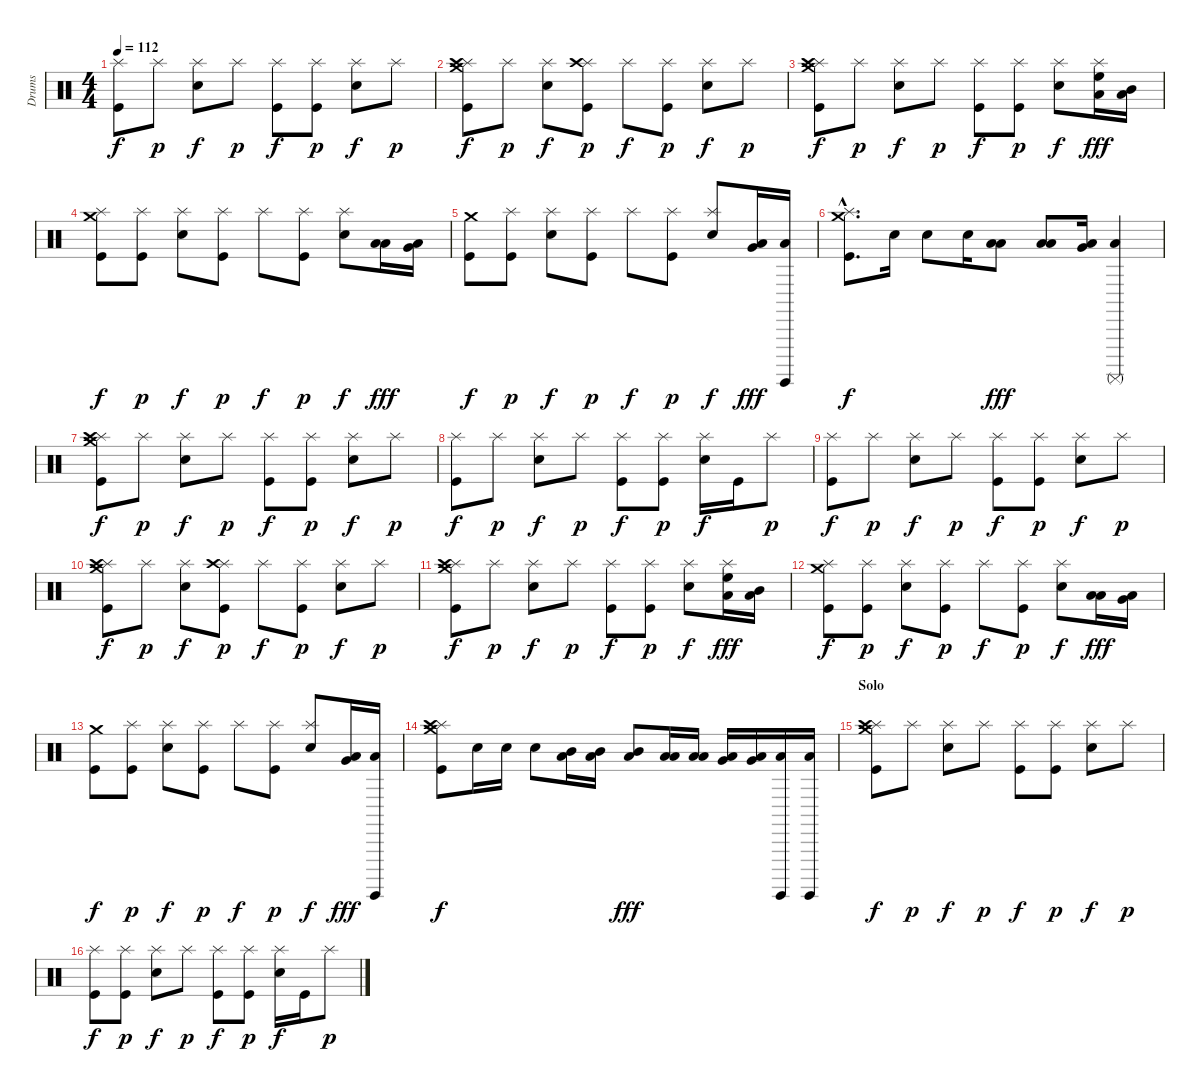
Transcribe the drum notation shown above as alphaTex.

\track ("Drums" "Drums") {instrument percussion}
\staff {score}
\articulation defaults
\ts (4 4)
\tempo 112
\clef neutral
\ks c
("Splash (hit)" "Kick (hit)").8{dy f} "Splash (hit)".8{dy p} ("Splash (hit)" "Electric Snare (hit)").8{dy f} "Splash (hit)".8{dy p} ("Splash (hit)" "Kick (hit)").8{dy f} ("Splash (hit)" "Kick (hit)").8{dy p} ("Splash (hit)" "Electric Snare (hit)").8{dy f} "Splash (hit)".8{dy p} |
("Crash medium (hit)" "Splash (hit)" "Crash high (hit)" "Kick (hit)").8{dy f} "Splash (hit)".8{dy p} ("Splash (hit)" "Electric Snare (hit)").8{dy f} ("Splash (hit)" "Crash high (hit)" "Kick (hit)").8{dy p} "Splash (hit)".8{dy f} ("Splash (hit)" "Kick (hit)").8{dy p} ("Splash (hit)" "Electric Snare (hit)").8{dy f} "Splash (hit)".8{dy p} |
("Crash medium (hit)" "Splash (hit)" "Crash high (hit)" "Kick (hit)").8{dy f} "Splash (hit)".8{dy p} ("Splash (hit)" "Electric Snare (hit)").8{dy f} "Splash (hit)".8{dy p} ("Splash (hit)" "Kick (hit)").8{dy f} ("Splash (hit)" "Kick (hit)").8{dy p} ("Splash (hit)" "Electric Snare (hit)").8{dy f} ("Splash (hit)" "Low Floor Tom (hit)" "High Floor Tom (hit)").16{dy fff} ("Low Floor Tom (hit)" "Mid Tom (hit)").16 |
("Crash medium (hit)" "Splash (hit)" "Kick (hit)").8{dy f} ("Splash (hit)" "Kick (hit)").8{dy p} ("Splash (hit)" "Electric Snare (hit)").8{dy f} ("Splash (hit)" "Kick (hit)").8{dy p} "Splash (hit)".8{dy f} ("Splash (hit)" "Kick (hit)").8{dy p} ("Splash (hit)" "Electric Snare (hit)").8{dy f} ("Low Floor Tom (hit)" "Low Tom (hit)").16{dy fff} ("Low Floor Tom (hit)" "Very Low Tom (hit)").16 |
("Crash medium (hit)" "Kick (hit)").8{dy f} ("Splash (hit)" "Kick (hit)").8{dy p} ("Splash (hit)" "Electric Snare (hit)").8{dy f} ("Splash (hit)" "Kick (hit)").8{dy p} "Splash (hit)".8{dy f} ("Splash (hit)" "Kick (hit)").8{dy p} ("Splash (hit)" "Electric Snare (hit)").8{dy f} ("Low Floor Tom (hit)" "Very Low Tom (hit)").16{dy fff} ("Surdo (hit)" "Low Floor Tom (hit)").16 |
("Crash medium (hit)"{hac} "Splash (hit)"{hac} "Kick (hit)"{hac}).8{d dy f} "Electric Snare (hit)".16 "Electric Snare (hit)".8 "Electric Snare (hit)".16 ("Low Floor Tom (hit)" "Low Tom (hit)").8{dy fff} ("Low Floor Tom (hit)" "Low Tom (hit)").8 ("Low Floor Tom (hit)" "Very Low Tom (hit)").16 ("Surdo (mute)" "Low Floor Tom (hit)").4 |
("Crash medium (hit)" "Splash (hit)" "Crash high (hit)" "Kick (hit)").8{dy f} "Splash (hit)".8{dy p} ("Splash (hit)" "Electric Snare (hit)").8{dy f} "Splash (hit)".8{dy p} ("Splash (hit)" "Kick (hit)").8{dy f} ("Splash (hit)" "Kick (hit)").8{dy p} ("Splash (hit)" "Electric Snare (hit)").8{dy f} "Splash (hit)".8{dy p} |
("Splash (hit)" "Kick (hit)").8{dy f} "Splash (hit)".8{dy p} ("Splash (hit)" "Electric Snare (hit)").8{dy f} "Splash (hit)".8{dy p} ("Splash (hit)" "Kick (hit)").8{dy f} ("Splash (hit)" "Kick (hit)").8{dy p} ("Splash (hit)" "Electric Snare (hit)").16{dy f} "Kick (hit)".16 "Splash (hit)".8{dy p} |
("Splash (hit)" "Kick (hit)").8{dy f} "Splash (hit)".8{dy p} ("Splash (hit)" "Electric Snare (hit)").8{dy f} "Splash (hit)".8{dy p} ("Splash (hit)" "Kick (hit)").8{dy f} ("Splash (hit)" "Kick (hit)").8{dy p} ("Splash (hit)" "Electric Snare (hit)").8{dy f} "Splash (hit)".8{dy p} |
("Crash medium (hit)" "Splash (hit)" "Crash high (hit)" "Kick (hit)").8{dy f} "Splash (hit)".8{dy p} ("Splash (hit)" "Electric Snare (hit)").8{dy f} ("Splash (hit)" "Crash high (hit)" "Kick (hit)").8{dy p} "Splash (hit)".8{dy f} ("Splash (hit)" "Kick (hit)").8{dy p} ("Splash (hit)" "Electric Snare (hit)").8{dy f} "Splash (hit)".8{dy p} |
("Crash medium (hit)" "Splash (hit)" "Crash high (hit)" "Kick (hit)").8{dy f} "Splash (hit)".8{dy p} ("Splash (hit)" "Electric Snare (hit)").8{dy f} "Splash (hit)".8{dy p} ("Splash (hit)" "Kick (hit)").8{dy f} ("Splash (hit)" "Kick (hit)").8{dy p} ("Splash (hit)" "Electric Snare (hit)").8{dy f} ("Splash (hit)" "Low Floor Tom (hit)" "High Floor Tom (hit)").16{dy fff} ("Low Floor Tom (hit)" "Mid Tom (hit)").16 |
("Crash medium (hit)" "Splash (hit)" "Kick (hit)").8{dy f} ("Splash (hit)" "Kick (hit)").8{dy p} ("Splash (hit)" "Electric Snare (hit)").8{dy f} ("Splash (hit)" "Kick (hit)").8{dy p} "Splash (hit)".8{dy f} ("Splash (hit)" "Kick (hit)").8{dy p} ("Splash (hit)" "Electric Snare (hit)").8{dy f} ("Low Floor Tom (hit)" "Low Tom (hit)").16{dy fff} ("Low Floor Tom (hit)" "Very Low Tom (hit)").16 |
("Crash medium (hit)" "Kick (hit)").8{dy f} ("Splash (hit)" "Kick (hit)").8{dy p} ("Splash (hit)" "Electric Snare (hit)").8{dy f} ("Splash (hit)" "Kick (hit)").8{dy p} "Splash (hit)".8{dy f} ("Splash (hit)" "Kick (hit)").8{dy p} ("Splash (hit)" "Electric Snare (hit)").8{dy f} ("Low Floor Tom (hit)" "Very Low Tom (hit)").16{dy fff} ("Surdo (hit)" "Low Floor Tom (hit)").16 |
("Crash medium (hit)" "Splash (hit)" "Crash high (hit)" "Kick (hit)").8{dy f} "Electric Snare (hit)".16 "Electric Snare (hit)".16 "Electric Snare (hit)".8 ("Low Floor Tom (hit)" "Mid Tom (hit)").16 ("Low Floor Tom (hit)" "Mid Tom (hit)").16 ("Low Floor Tom (hit)" "Mid Tom (hit)").8{dy fff} ("Low Floor Tom (hit)" "Low Tom (hit)").16 ("Low Floor Tom (hit)" "Low Tom (hit)").16 ("Low Floor Tom (hit)" "Very Low Tom (hit)").16 ("Low Floor Tom (hit)" "Very Low Tom (hit)").16 ("Surdo (hit)" "Low Floor Tom (hit)").16 ("Surdo (hit)" "Low Floor Tom (hit)").16 |
\section ("" "Solo")
("Crash medium (hit)" "Splash (hit)" "Crash high (hit)" "Kick (hit)").8{dy f} "Splash (hit)".8{dy p} ("Splash (hit)" "Electric Snare (hit)").8{dy f} "Splash (hit)".8{dy p} ("Splash (hit)" "Kick (hit)").8{dy f} ("Splash (hit)" "Kick (hit)").8{dy p} ("Splash (hit)" "Electric Snare (hit)").8{dy f} "Splash (hit)".8{dy p} |
("Splash (hit)" "Kick (hit)").8{dy f} ("Splash (hit)" "Kick (hit)").8{dy p} ("Splash (hit)" "Electric Snare (hit)").8{dy f} "Splash (hit)".8{dy p} ("Splash (hit)" "Kick (hit)").8{dy f} ("Splash (hit)" "Kick (hit)").8{dy p} ("Splash (hit)" "Electric Snare (hit)").16{dy f} "Kick (hit)".16 "Splash (hit)".8{dy p}
